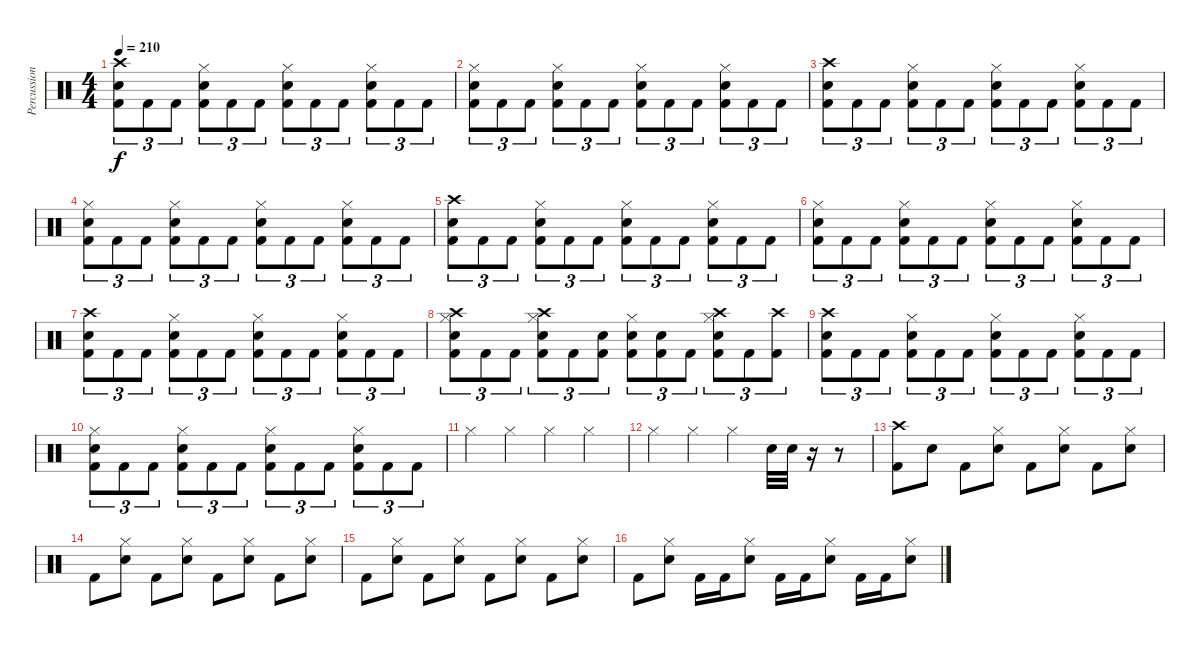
\track ("Percussions" "Percussion") {instrument percussion}
\staff {score}
\articulation defaults
\ts (4 4)
\tempo 210
\clef neutral
\ks c
("Crash high (hit)" "Electric Snare (hit)" "Kick (hit) 2").8{tu (3 2) dy f} "Kick (hit) 2".8{tu (3 2)} "Kick (hit) 2".8{tu (3 2)} ("Hi-Hat (closed)" "Electric Snare (hit)" "Kick (hit) 2").8{tu (3 2)} "Kick (hit) 2".8{tu (3 2)} "Kick (hit) 2".8{tu (3 2)} ("Hi-Hat (closed)" "Electric Snare (hit)" "Kick (hit) 2").8{tu (3 2)} "Kick (hit) 2".8{tu (3 2)} "Kick (hit) 2".8{tu (3 2)} ("Hi-Hat (closed)" "Electric Snare (hit)" "Kick (hit) 2").8{tu (3 2)} "Kick (hit) 2".8{tu (3 2)} "Kick (hit) 2".8{tu (3 2)} |
("Hi-Hat (closed)" "Electric Snare (hit)" "Kick (hit) 2").8{tu (3 2)} "Kick (hit) 2".8{tu (3 2)} "Kick (hit) 2".8{tu (3 2)} ("Hi-Hat (closed)" "Electric Snare (hit)" "Kick (hit) 2").8{tu (3 2)} "Kick (hit) 2".8{tu (3 2)} "Kick (hit) 2".8{tu (3 2)} ("Hi-Hat (closed)" "Electric Snare (hit)" "Kick (hit) 2").8{tu (3 2)} "Kick (hit) 2".8{tu (3 2)} "Kick (hit) 2".8{tu (3 2)} ("Hi-Hat (closed)" "Electric Snare (hit)" "Kick (hit) 2").8{tu (3 2)} "Kick (hit) 2".8{tu (3 2)} "Kick (hit) 2".8{tu (3 2)} |
("Crash high (hit)" "Electric Snare (hit)" "Kick (hit) 2").8{tu (3 2)} "Kick (hit) 2".8{tu (3 2)} "Kick (hit) 2".8{tu (3 2)} ("Hi-Hat (closed)" "Electric Snare (hit)" "Kick (hit) 2").8{tu (3 2)} "Kick (hit) 2".8{tu (3 2)} "Kick (hit) 2".8{tu (3 2)} ("Hi-Hat (closed)" "Electric Snare (hit)" "Kick (hit) 2").8{tu (3 2)} "Kick (hit) 2".8{tu (3 2)} "Kick (hit) 2".8{tu (3 2)} ("Hi-Hat (closed)" "Electric Snare (hit)" "Kick (hit) 2").8{tu (3 2)} "Kick (hit) 2".8{tu (3 2)} "Kick (hit) 2".8{tu (3 2)} |
("Hi-Hat (closed)" "Electric Snare (hit)" "Kick (hit) 2").8{tu (3 2)} "Kick (hit) 2".8{tu (3 2)} "Kick (hit) 2".8{tu (3 2)} ("Hi-Hat (closed)" "Electric Snare (hit)" "Kick (hit) 2").8{tu (3 2)} "Kick (hit) 2".8{tu (3 2)} "Kick (hit) 2".8{tu (3 2)} ("Hi-Hat (closed)" "Electric Snare (hit)" "Kick (hit) 2").8{tu (3 2)} "Kick (hit) 2".8{tu (3 2)} "Kick (hit) 2".8{tu (3 2)} ("Hi-Hat (closed)" "Electric Snare (hit)" "Kick (hit) 2").8{tu (3 2)} "Kick (hit) 2".8{tu (3 2)} "Kick (hit) 2".8{tu (3 2)} |
("Crash high (hit)" "Electric Snare (hit)" "Kick (hit) 2").8{tu (3 2)} "Kick (hit) 2".8{tu (3 2)} "Kick (hit) 2".8{tu (3 2)} ("Hi-Hat (closed)" "Electric Snare (hit)" "Kick (hit) 2").8{tu (3 2)} "Kick (hit) 2".8{tu (3 2)} "Kick (hit) 2".8{tu (3 2)} ("Hi-Hat (closed)" "Electric Snare (hit)" "Kick (hit) 2").8{tu (3 2)} "Kick (hit) 2".8{tu (3 2)} "Kick (hit) 2".8{tu (3 2)} ("Hi-Hat (closed)" "Electric Snare (hit)" "Kick (hit) 2").8{tu (3 2)} "Kick (hit) 2".8{tu (3 2)} "Kick (hit) 2".8{tu (3 2)} |
("Hi-Hat (closed)" "Electric Snare (hit)" "Kick (hit) 2").8{tu (3 2)} "Kick (hit) 2".8{tu (3 2)} "Kick (hit) 2".8{tu (3 2)} ("Hi-Hat (closed)" "Electric Snare (hit)" "Kick (hit) 2").8{tu (3 2)} "Kick (hit) 2".8{tu (3 2)} "Kick (hit) 2".8{tu (3 2)} ("Hi-Hat (closed)" "Electric Snare (hit)" "Kick (hit) 2").8{tu (3 2)} "Kick (hit) 2".8{tu (3 2)} "Kick (hit) 2".8{tu (3 2)} ("Hi-Hat (closed)" "Electric Snare (hit)" "Kick (hit) 2").8{tu (3 2)} "Kick (hit) 2".8{tu (3 2)} "Kick (hit) 2".8{tu (3 2)} |
("Crash high (hit)" "Electric Snare (hit)" "Kick (hit) 2").8{tu (3 2)} "Kick (hit) 2".8{tu (3 2)} "Kick (hit) 2".8{tu (3 2)} ("Hi-Hat (closed)" "Electric Snare (hit)" "Kick (hit) 2").8{tu (3 2)} "Kick (hit) 2".8{tu (3 2)} "Kick (hit) 2".8{tu (3 2)} ("Hi-Hat (closed)" "Electric Snare (hit)" "Kick (hit) 2").8{tu (3 2)} "Kick (hit) 2".8{tu (3 2)} "Kick (hit) 2".8{tu (3 2)} ("Hi-Hat (closed)" "Electric Snare (hit)" "Kick (hit) 2").8{tu (3 2)} "Kick (hit) 2".8{tu (3 2)} "Kick (hit) 2".8{tu (3 2)} |
("Crash high (hit)" "Hi-Hat (closed)" "Electric Snare (hit)" "Kick (hit) 2").8{tu (3 2)} "Kick (hit) 2".8{tu (3 2)} "Kick (hit) 2".8{tu (3 2)} ("Crash high (hit)" "Hi-Hat (closed)" "Electric Snare (hit)" "Kick (hit) 2").8{tu (3 2)} "Kick (hit) 2".8{tu (3 2)} ("Electric Snare (hit)" "Kick (hit) 2").8{tu (3 2)} ("Hi-Hat (closed)" "Electric Snare (hit)" "Kick (hit) 2").8{tu (3 2)} ("Electric Snare (hit)" "Kick (hit) 2").8{tu (3 2)} "Kick (hit) 2".8{tu (3 2)} ("Crash high (hit)" "Hi-Hat (closed)" "Electric Snare (hit)" "Kick (hit) 2").8{tu (3 2)} "Kick (hit) 2".8{tu (3 2)} ("Crash high (hit)" "Kick (hit) 2").8{tu (3 2)} |
("Crash high (hit)" "Electric Snare (hit)" "Kick (hit) 2").8{tu (3 2)} "Kick (hit) 2".8{tu (3 2)} "Kick (hit) 2".8{tu (3 2)} ("Hi-Hat (closed)" "Electric Snare (hit)" "Kick (hit) 2").8{tu (3 2)} "Kick (hit) 2".8{tu (3 2)} "Kick (hit) 2".8{tu (3 2)} ("Hi-Hat (closed)" "Electric Snare (hit)" "Kick (hit) 2").8{tu (3 2)} "Kick (hit) 2".8{tu (3 2)} "Kick (hit) 2".8{tu (3 2)} ("Hi-Hat (closed)" "Electric Snare (hit)" "Kick (hit) 2").8{tu (3 2)} "Kick (hit) 2".8{tu (3 2)} "Kick (hit) 2".8{tu (3 2)} |
("Hi-Hat (closed)" "Electric Snare (hit)" "Kick (hit) 2").8{tu (3 2)} "Kick (hit) 2".8{tu (3 2)} "Kick (hit) 2".8{tu (3 2)} ("Hi-Hat (closed)" "Electric Snare (hit)" "Kick (hit) 2").8{tu (3 2)} "Kick (hit) 2".8{tu (3 2)} "Kick (hit) 2".8{tu (3 2)} ("Hi-Hat (closed)" "Electric Snare (hit)" "Kick (hit) 2").8{tu (3 2)} "Kick (hit) 2".8{tu (3 2)} "Kick (hit) 2".8{tu (3 2)} ("Hi-Hat (closed)" "Electric Snare (hit)" "Kick (hit) 2").8{tu (3 2)} "Kick (hit) 2".8{tu (3 2)} "Kick (hit) 2".8{tu (3 2)} |
"Hi-Hat (closed)".4 "Hi-Hat (closed)".4 "Hi-Hat (closed)".4 "Hi-Hat (closed)".4 |
"Hi-Hat (closed)".4 "Hi-Hat (closed)".4 "Hi-Hat (closed)".4 "Electric Snare (hit)".32 "Electric Snare (hit)".32 r.16 r.8 |
("Crash high (hit)" "Kick (hit) 2").8 "Electric Snare (hit)".8 "Kick (hit) 2".8 ("Hi-Hat (closed)" "Electric Snare (hit)").8 "Kick (hit) 2".8 ("Hi-Hat (closed)" "Electric Snare (hit)").8 "Kick (hit) 2".8 ("Hi-Hat (closed)" "Electric Snare (hit)").8 |
"Kick (hit) 2".8 ("Hi-Hat (closed)" "Electric Snare (hit)").8 "Kick (hit) 2".8 ("Hi-Hat (closed)" "Electric Snare (hit)").8 "Kick (hit) 2".8 ("Hi-Hat (closed)" "Electric Snare (hit)").8 "Kick (hit) 2".8 ("Hi-Hat (closed)" "Electric Snare (hit)").8 |
"Kick (hit) 2".8 ("Hi-Hat (closed)" "Electric Snare (hit)").8 "Kick (hit) 2".8 ("Hi-Hat (closed)" "Electric Snare (hit)").8 "Kick (hit) 2".8 ("Hi-Hat (closed)" "Electric Snare (hit)").8 "Kick (hit) 2".8 ("Hi-Hat (closed)" "Electric Snare (hit)").8 |
"Kick (hit) 2".8 ("Hi-Hat (closed)" "Electric Snare (hit)").8 "Kick (hit) 2".16 "Kick (hit) 2".16 ("Hi-Hat (closed)" "Electric Snare (hit)").8 "Kick (hit) 2".16 "Kick (hit) 2".16 ("Hi-Hat (closed)" "Electric Snare (hit)").8 "Kick (hit) 2".16 "Kick (hit) 2".16 ("Hi-Hat (closed)" "Electric Snare (hit)").8
